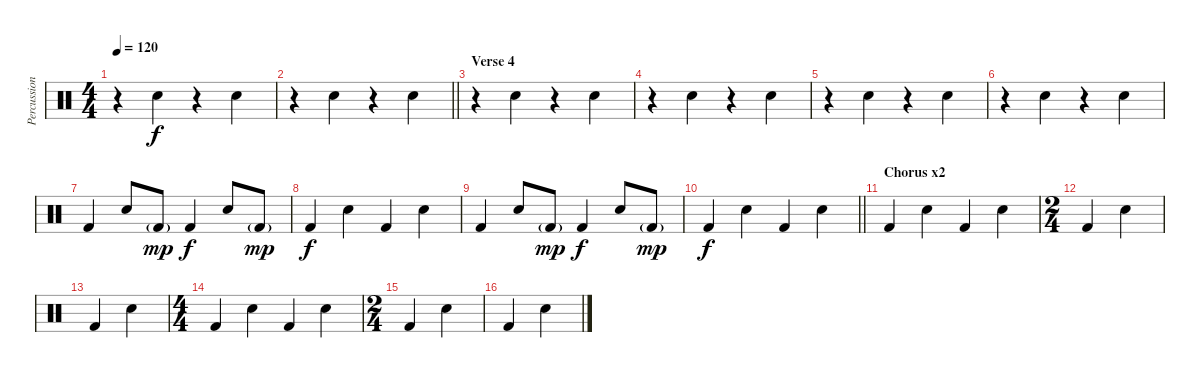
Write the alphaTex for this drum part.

\track ("Percussion" "Percussion") {instrument percussion}
\staff {score}
\articulation defaults
\ts (4 4)
\tempo 120
\clef neutral
\ks c
r.4{dy f} "Snare (hit) 2".4 r.4 "Snare (hit) 2".4 |
\barLineRight lightlight
r.4 "Snare (hit) 2".4 r.4 "Snare (hit) 2".4 |
\section ("" "Verse 4")
r.4 "Snare (hit) 2".4 r.4 "Snare (hit) 2".4 |
r.4 "Snare (hit) 2".4 r.4 "Snare (hit) 2".4 |
r.4 "Snare (hit) 2".4 r.4 "Snare (hit) 2".4 |
r.4 "Snare (hit) 2".4 r.4 "Snare (hit) 2".4 |
"Kick (hit) 2".4 "Snare (hit) 2".8 "Kick (hit) 2"{g}.8{dy mp} "Kick (hit) 2".4{dy f} "Snare (hit) 2".8 "Kick (hit) 2"{g}.8{dy mp} |
"Kick (hit) 2".4{dy f} "Snare (hit) 2".4 "Kick (hit) 2".4 "Snare (hit) 2".4 |
"Kick (hit) 2".4 "Snare (hit) 2".8 "Kick (hit) 2"{g}.8{dy mp} "Kick (hit) 2".4{dy f} "Snare (hit) 2".8 "Kick (hit) 2"{g}.8{dy mp} |
\barLineRight lightlight "Kick (hit) 2".4{dy f} "Snare (hit) 2".4 "Kick (hit) 2".4 "Snare (hit) 2".4
|
\section ("" "Chorus x2")
"Kick (hit) 2".4 "Snare (hit) 2".4 "Kick (hit) 2".4 "Snare (hit) 2".4 |
\ts (2 4)
"Kick (hit) 2".4 "Snare (hit) 2".4 |
"Kick (hit) 2".4 "Snare (hit) 2".4 |
\ts (4 4)
"Kick (hit) 2".4 "Snare (hit) 2".4 "Kick (hit) 2".4 "Snare (hit) 2".4 |
\ts (2 4)
"Kick (hit) 2".4 "Snare (hit) 2".4 |
"Kick (hit) 2".4 "Snare (hit) 2".4
